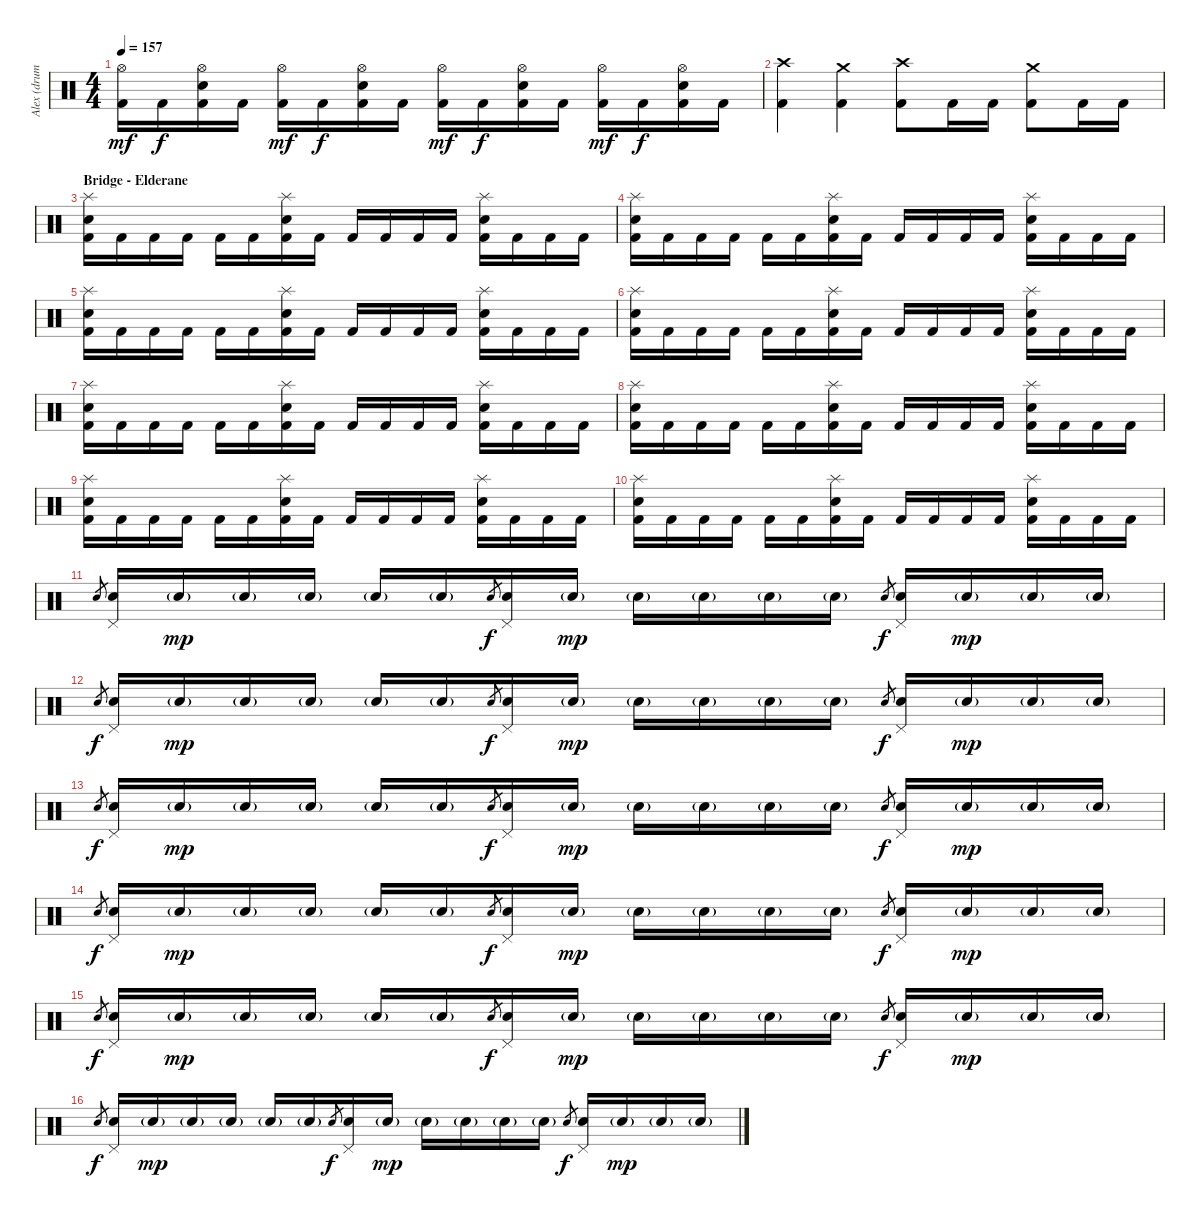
\track ("Alex (drums)" "Alex (drum") {instrument percussion}
\staff {score}
\articulation defaults
\ts (4 4)
\tempo 157
\clef neutral
\ks c
("Hi-Hat (open)" "Kick (hit) 2").16{dy mf} "Kick (hit) 2".16{dy f} ("Hi-Hat (open)" "Snare (hit) 2" "Kick (hit) 2").16 "Kick (hit) 2".16 ("Hi-Hat (open)" "Kick (hit) 2").16{dy mf} "Kick (hit) 2".16{dy f} ("Hi-Hat (open)" "Snare (hit) 2" "Kick (hit) 2").16 "Kick (hit) 2".16 ("Hi-Hat (open)" "Kick (hit) 2").16{dy mf} "Kick (hit) 2".16{dy f} ("Hi-Hat (open)" "Snare (hit) 2" "Kick (hit) 2").16 "Kick (hit) 2".16 ("Hi-Hat (open)" "Kick (hit) 2").16{dy mf} "Kick (hit) 2".16{dy f} ("Hi-Hat (open)" "Snare (hit) 2" "Kick (hit) 2").16 "Kick (hit) 2".16 |
("Kick (hit) 2" "Crash high (hit)").4 ("Kick (hit) 2" "Crash medium (hit)").4 ("Kick (hit) 2" "Crash high (hit)").8 "Kick (hit) 2".16 "Kick (hit) 2".16 ("Kick (hit) 2" "Crash medium (hit)").8 "Kick (hit) 2".16 "Kick (hit) 2".16 |
\section ("" "Bridge - Elderane")
("Snare (hit) 2" "Kick (hit) 2" "Splash (hit)").16 "Kick (hit) 2".16 "Kick (hit) 2".16 "Kick (hit) 2".16 "Kick (hit) 2".16 "Kick (hit) 2".16 ("Snare (hit) 2" "Kick (hit) 2" "Splash (hit)").16 "Kick (hit) 2".16 "Kick (hit) 2".16 "Kick (hit) 2".16 "Kick (hit) 2".16 "Kick (hit) 2".16 ("Snare (hit) 2" "Kick (hit) 2" "Splash (hit)").16 "Kick (hit) 2".16 "Kick (hit) 2".16 "Kick (hit) 2".16 |
("Snare (hit) 2" "Kick (hit) 2" "Splash (hit)").16 "Kick (hit) 2".16 "Kick (hit) 2".16 "Kick (hit) 2".16 "Kick (hit) 2".16 "Kick (hit) 2".16 ("Snare (hit) 2" "Kick (hit) 2" "Splash (hit)").16 "Kick (hit) 2".16 "Kick (hit) 2".16 "Kick (hit) 2".16 "Kick (hit) 2".16 "Kick (hit) 2".16 ("Snare (hit) 2" "Kick (hit) 2" "Splash (hit)").16 "Kick (hit) 2".16 "Kick (hit) 2".16 "Kick (hit) 2".16 |
("Snare (hit) 2" "Kick (hit) 2" "Splash (hit)").16 "Kick (hit) 2".16 "Kick (hit) 2".16 "Kick (hit) 2".16 "Kick (hit) 2".16 "Kick (hit) 2".16 ("Snare (hit) 2" "Kick (hit) 2" "Splash (hit)").16 "Kick (hit) 2".16 "Kick (hit) 2".16 "Kick (hit) 2".16 "Kick (hit) 2".16 "Kick (hit) 2".16 ("Snare (hit) 2" "Kick (hit) 2" "Splash (hit)").16 "Kick (hit) 2".16 "Kick (hit) 2".16 "Kick (hit) 2".16 |
("Snare (hit) 2" "Kick (hit) 2" "Splash (hit)").16 "Kick (hit) 2".16 "Kick (hit) 2".16 "Kick (hit) 2".16 "Kick (hit) 2".16 "Kick (hit) 2".16 ("Snare (hit) 2" "Kick (hit) 2" "Splash (hit)").16 "Kick (hit) 2".16 "Kick (hit) 2".16 "Kick (hit) 2".16 "Kick (hit) 2".16 "Kick (hit) 2".16 ("Snare (hit) 2" "Kick (hit) 2" "Splash (hit)").16 "Kick (hit) 2".16 "Kick (hit) 2".16 "Kick (hit) 2".16 |
("Snare (hit) 2" "Kick (hit) 2" "Splash (hit)").16 "Kick (hit) 2".16 "Kick (hit) 2".16 "Kick (hit) 2".16 "Kick (hit) 2".16 "Kick (hit) 2".16 ("Snare (hit) 2" "Kick (hit) 2" "Splash (hit)").16 "Kick (hit) 2".16 "Kick (hit) 2".16 "Kick (hit) 2".16 "Kick (hit) 2".16 "Kick (hit) 2".16 ("Snare (hit) 2" "Kick (hit) 2" "Splash (hit)").16 "Kick (hit) 2".16 "Kick (hit) 2".16 "Kick (hit) 2".16 |
("Snare (hit) 2" "Kick (hit) 2" "Splash (hit)").16 "Kick (hit) 2".16 "Kick (hit) 2".16 "Kick (hit) 2".16 "Kick (hit) 2".16 "Kick (hit) 2".16 ("Snare (hit) 2" "Kick (hit) 2" "Splash (hit)").16 "Kick (hit) 2".16 "Kick (hit) 2".16 "Kick (hit) 2".16 "Kick (hit) 2".16 "Kick (hit) 2".16 ("Snare (hit) 2" "Kick (hit) 2" "Splash (hit)").16 "Kick (hit) 2".16 "Kick (hit) 2".16 "Kick (hit) 2".16 |
("Snare (hit) 2" "Kick (hit) 2" "Splash (hit)").16 "Kick (hit) 2".16 "Kick (hit) 2".16 "Kick (hit) 2".16 "Kick (hit) 2".16 "Kick (hit) 2".16 ("Snare (hit) 2" "Kick (hit) 2" "Splash (hit)").16 "Kick (hit) 2".16 "Kick (hit) 2".16 "Kick (hit) 2".16 "Kick (hit) 2".16 "Kick (hit) 2".16 ("Snare (hit) 2" "Kick (hit) 2" "Splash (hit)").16 "Kick (hit) 2".16 "Kick (hit) 2".16 "Kick (hit) 2".16 |
("Snare (hit) 2" "Kick (hit) 2" "Splash (hit)").16 "Kick (hit) 2".16 "Kick (hit) 2".16 "Kick (hit) 2".16 "Kick (hit) 2".16 "Kick (hit) 2".16 ("Snare (hit) 2" "Kick (hit) 2" "Splash (hit)").16 "Kick (hit) 2".16 "Kick (hit) 2".16 "Kick (hit) 2".16 "Kick (hit) 2".16 "Kick (hit) 2".16 ("Snare (hit) 2" "Kick (hit) 2" "Splash (hit)").16 "Kick (hit) 2".16 "Kick (hit) 2".16 "Kick (hit) 2".16 |
"Snare (hit) 2".8{gr} ("Pedal Hi-Hat (hit)" "Snare (hit) 2").16 "Snare (hit) 2"{g}.16{dy mp} "Snare (hit) 2"{g}.16 "Snare (hit) 2"{g}.16 "Snare (hit) 2"{g}.16 "Snare (hit) 2"{g}.16 "Snare (hit) 2".8{gr dy f} ("Pedal Hi-Hat (hit)" "Snare (hit) 2").16 "Snare (hit) 2"{g}.16{dy mp} "Snare (hit) 2"{g}.16 "Snare (hit) 2"{g}.16 "Snare (hit) 2"{g}.16 "Snare (hit) 2"{g}.16 "Snare (hit) 2".8{gr dy f} ("Pedal Hi-Hat (hit)" "Snare (hit) 2").16 "Snare (hit) 2"{g}.16{dy mp} "Snare (hit) 2"{g}.16 "Snare (hit) 2"{g}.16 |
"Snare (hit) 2".8{gr dy f} ("Pedal Hi-Hat (hit)" "Snare (hit) 2").16 "Snare (hit) 2"{g}.16{dy mp} "Snare (hit) 2"{g}.16 "Snare (hit) 2"{g}.16 "Snare (hit) 2"{g}.16 "Snare (hit) 2"{g}.16 "Snare (hit) 2".8{gr dy f} ("Pedal Hi-Hat (hit)" "Snare (hit) 2").16 "Snare (hit) 2"{g}.16{dy mp} "Snare (hit) 2"{g}.16 "Snare (hit) 2"{g}.16 "Snare (hit) 2"{g}.16 "Snare (hit) 2"{g}.16 "Snare (hit) 2".8{gr dy f} ("Pedal Hi-Hat (hit)" "Snare (hit) 2").16 "Snare (hit) 2"{g}.16{dy mp} "Snare (hit) 2"{g}.16 "Snare (hit) 2"{g}.16 |
"Snare (hit) 2".8{gr dy f} ("Pedal Hi-Hat (hit)" "Snare (hit) 2").16 "Snare (hit) 2"{g}.16{dy mp} "Snare (hit) 2"{g}.16 "Snare (hit) 2"{g}.16 "Snare (hit) 2"{g}.16 "Snare (hit) 2"{g}.16 "Snare (hit) 2".8{gr dy f} ("Pedal Hi-Hat (hit)" "Snare (hit) 2").16 "Snare (hit) 2"{g}.16{dy mp} "Snare (hit) 2"{g}.16 "Snare (hit) 2"{g}.16 "Snare (hit) 2"{g}.16 "Snare (hit) 2"{g}.16 "Snare (hit) 2".8{gr dy f} ("Pedal Hi-Hat (hit)" "Snare (hit) 2").16 "Snare (hit) 2"{g}.16{dy mp} "Snare (hit) 2"{g}.16 "Snare (hit) 2"{g}.16 |
"Snare (hit) 2".8{gr dy f} ("Pedal Hi-Hat (hit)" "Snare (hit) 2").16 "Snare (hit) 2"{g}.16{dy mp} "Snare (hit) 2"{g}.16 "Snare (hit) 2"{g}.16 "Snare (hit) 2"{g}.16 "Snare (hit) 2"{g}.16 "Snare (hit) 2".8{gr dy f} ("Pedal Hi-Hat (hit)" "Snare (hit) 2").16 "Snare (hit) 2"{g}.16{dy mp} "Snare (hit) 2"{g}.16 "Snare (hit) 2"{g}.16 "Snare (hit) 2"{g}.16 "Snare (hit) 2"{g}.16 "Snare (hit) 2".8{gr dy f} ("Pedal Hi-Hat (hit)" "Snare (hit) 2").16 "Snare (hit) 2"{g}.16{dy mp} "Snare (hit) 2"{g}.16 "Snare (hit) 2"{g}.16 |
"Snare (hit) 2".8{gr dy f} ("Pedal Hi-Hat (hit)" "Snare (hit) 2").16 "Snare (hit) 2"{g}.16{dy mp} "Snare (hit) 2"{g}.16 "Snare (hit) 2"{g}.16 "Snare (hit) 2"{g}.16 "Snare (hit) 2"{g}.16 "Snare (hit) 2".8{gr dy f} ("Pedal Hi-Hat (hit)" "Snare (hit) 2").16 "Snare (hit) 2"{g}.16{dy mp} "Snare (hit) 2"{g}.16 "Snare (hit) 2"{g}.16 "Snare (hit) 2"{g}.16 "Snare (hit) 2"{g}.16 "Snare (hit) 2".8{gr dy f} ("Pedal Hi-Hat (hit)" "Snare (hit) 2").16 "Snare (hit) 2"{g}.16{dy mp} "Snare (hit) 2"{g}.16 "Snare (hit) 2"{g}.16 |
"Snare (hit) 2".8{gr dy f} ("Pedal Hi-Hat (hit)" "Snare (hit) 2").16 "Snare (hit) 2"{g}.16{dy mp} "Snare (hit) 2"{g}.16 "Snare (hit) 2"{g}.16 "Snare (hit) 2"{g}.16 "Snare (hit) 2"{g}.16 "Snare (hit) 2".8{gr dy f} ("Pedal Hi-Hat (hit)" "Snare (hit) 2").16 "Snare (hit) 2"{g}.16{dy mp} "Snare (hit) 2"{g}.16 "Snare (hit) 2"{g}.16 "Snare (hit) 2"{g}.16 "Snare (hit) 2"{g}.16 "Snare (hit) 2".8{gr dy f} ("Pedal Hi-Hat (hit)" "Snare (hit) 2").16 "Snare (hit) 2"{g}.16{dy mp} "Snare (hit) 2"{g}.16 "Snare (hit) 2"{g}.16
